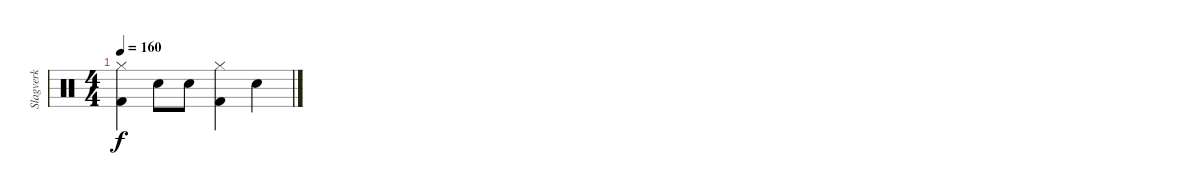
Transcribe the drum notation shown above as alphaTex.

\track ("Slagverk" "Slagverk") {instrument percussion}
\staff {score}
\articulation defaults
\ts (4 4)
\tempo 160
\clef neutral
\ks c
("Kick (hit) 2" "Hi-Hat (closed)").4{dy f} "Snare (hit) 2".8 "Snare (hit) 2".8 ("Kick (hit) 2" "Hi-Hat (closed)").4 "Snare (hit) 2".4
